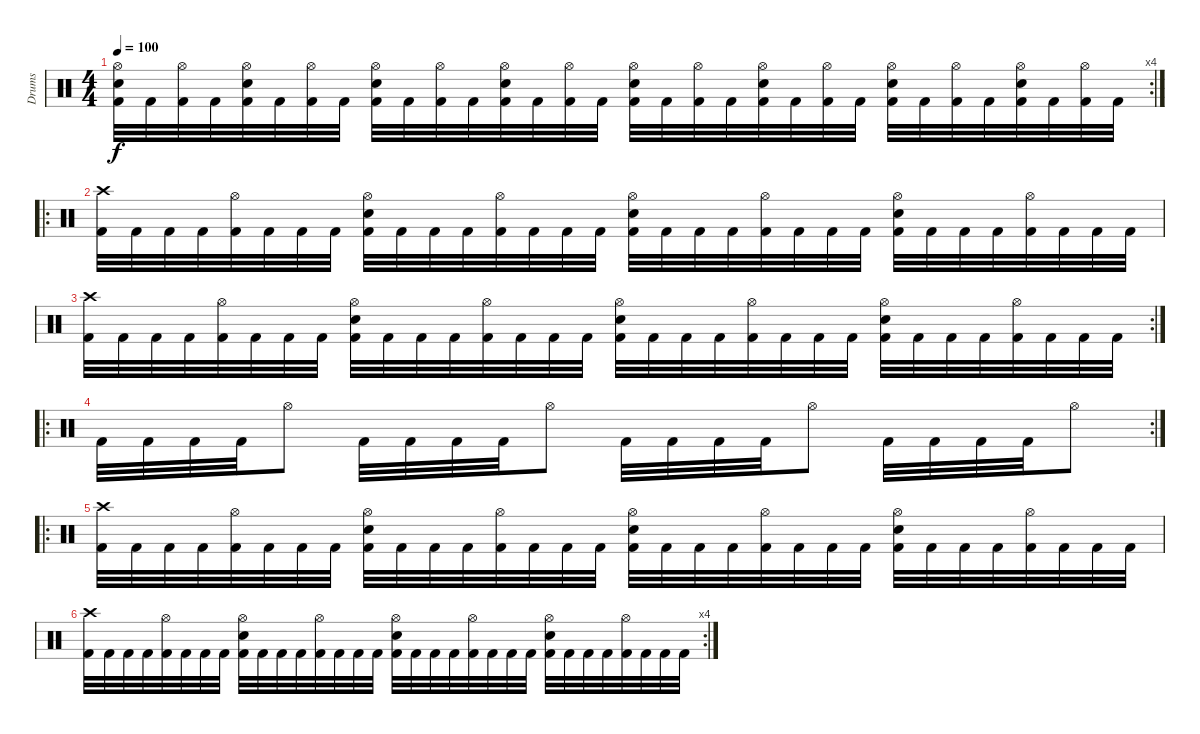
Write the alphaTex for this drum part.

\track ("Drums" "Drums") {instrument percussion}
\staff {score}
\articulation defaults
\rc 4
\ts (4 4)
\tempo 100
\clef neutral
\ks c
("Hi-Hat (open)" "Electric Snare (hit)" "Kick (hit) 2").32{dy f} "Kick (hit) 2".32 ("Hi-Hat (open)" "Kick (hit) 2").32 "Kick (hit) 2".32 ("Hi-Hat (open)" "Electric Snare (hit)" "Kick (hit) 2").32 "Kick (hit) 2".32 ("Hi-Hat (open)" "Kick (hit) 2").32 "Kick (hit) 2".32 ("Hi-Hat (open)" "Electric Snare (hit)" "Kick (hit) 2").32 "Kick (hit) 2".32 ("Hi-Hat (open)" "Kick (hit) 2").32 "Kick (hit) 2".32 ("Hi-Hat (open)" "Electric Snare (hit)" "Kick (hit) 2").32 "Kick (hit) 2".32 ("Hi-Hat (open)" "Kick (hit) 2").32 "Kick (hit) 2".32 ("Hi-Hat (open)" "Electric Snare (hit)" "Kick (hit) 2").32 "Kick (hit) 2".32 ("Hi-Hat (open)" "Kick (hit) 2").32 "Kick (hit) 2".32 ("Hi-Hat (open)" "Electric Snare (hit)" "Kick (hit) 2").32 "Kick (hit) 2".32 ("Hi-Hat (open)" "Kick (hit) 2").32 "Kick (hit) 2".32 ("Hi-Hat (open)" "Electric Snare (hit)" "Kick (hit) 2").32 "Kick (hit) 2".32 ("Hi-Hat (open)" "Kick (hit) 2").32 "Kick (hit) 2".32 ("Hi-Hat (open)" "Electric Snare (hit)" "Kick (hit) 2").32 "Kick (hit) 2".32 ("Hi-Hat (open)" "Kick (hit) 2").32 "Kick (hit) 2".32 |
\ro
("Crash high (hit)" "Kick (hit) 2").32 "Kick (hit) 2".32 "Kick (hit) 2".32 "Kick (hit) 2".32 ("Hi-Hat (open)" "Kick (hit) 2").32 "Kick (hit) 2".32 "Kick (hit) 2".32 "Kick (hit) 2".32 ("Hi-Hat (open)" "Electric Snare (hit)" "Kick (hit) 2").32 "Kick (hit) 2".32 "Kick (hit) 2".32 "Kick (hit) 2".32 ("Hi-Hat (open)" "Kick (hit) 2").32 "Kick (hit) 2".32 "Kick (hit) 2".32 "Kick (hit) 2".32 ("Hi-Hat (open)" "Electric Snare (hit)" "Kick (hit) 2").32 "Kick (hit) 2".32 "Kick (hit) 2".32 "Kick (hit) 2".32 ("Hi-Hat (open)" "Kick (hit) 2").32 "Kick (hit) 2".32 "Kick (hit) 2".32 "Kick (hit) 2".32 ("Hi-Hat (open)" "Electric Snare (hit)" "Kick (hit) 2").32 "Kick (hit) 2".32 "Kick (hit) 2".32 "Kick (hit) 2".32 ("Hi-Hat (open)" "Kick (hit) 2").32 "Kick (hit) 2".32 "Kick (hit) 2".32 "Kick (hit) 2".32 |
\rc 2
("Crash high (hit)" "Kick (hit) 2").32 "Kick (hit) 2".32 "Kick (hit) 2".32 "Kick (hit) 2".32 ("Hi-Hat (open)" "Kick (hit) 2").32 "Kick (hit) 2".32 "Kick (hit) 2".32 "Kick (hit) 2".32 ("Hi-Hat (open)" "Electric Snare (hit)" "Kick (hit) 2").32 "Kick (hit) 2".32 "Kick (hit) 2".32 "Kick (hit) 2".32 ("Hi-Hat (open)" "Kick (hit) 2").32 "Kick (hit) 2".32 "Kick (hit) 2".32 "Kick (hit) 2".32 ("Hi-Hat (open)" "Electric Snare (hit)" "Kick (hit) 2").32 "Kick (hit) 2".32 "Kick (hit) 2".32 "Kick (hit) 2".32 ("Hi-Hat (open)" "Kick (hit) 2").32 "Kick (hit) 2".32 "Kick (hit) 2".32 "Kick (hit) 2".32 ("Hi-Hat (open)" "Electric Snare (hit)" "Kick (hit) 2").32 "Kick (hit) 2".32 "Kick (hit) 2".32 "Kick (hit) 2".32 ("Hi-Hat (open)" "Kick (hit) 2").32 "Kick (hit) 2".32 "Kick (hit) 2".32 "Kick (hit) 2".32 |
\ro
\rc 2 "Kick (hit) 2".32 "Kick (hit) 2".32 "Kick (hit) 2".32 "Kick (hit) 2".32 "Hi-Hat (open)".8 "Kick (hit) 2".32 "Kick (hit) 2".32 "Kick (hit) 2".32 "Kick (hit) 2".32 "Hi-Hat (open)".8 "Kick (hit) 2".32 "Kick (hit) 2".32 "Kick (hit) 2".32 "Kick (hit) 2".32 "Hi-Hat (open)".8 "Kick (hit) 2".32 "Kick (hit) 2".32 "Kick (hit) 2".32 "Kick (hit) 2".32 "Hi-Hat (open)".8
|
\ro
("Crash high (hit)" "Kick (hit) 2").32 "Kick (hit) 2".32 "Kick (hit) 2".32 "Kick (hit) 2".32 ("Hi-Hat (open)" "Kick (hit) 2").32 "Kick (hit) 2".32 "Kick (hit) 2".32 "Kick (hit) 2".32 ("Hi-Hat (open)" "Electric Snare (hit)" "Kick (hit) 2").32 "Kick (hit) 2".32 "Kick (hit) 2".32 "Kick (hit) 2".32 ("Hi-Hat (open)" "Kick (hit) 2").32 "Kick (hit) 2".32 "Kick (hit) 2".32 "Kick (hit) 2".32 ("Hi-Hat (open)" "Electric Snare (hit)" "Kick (hit) 2").32 "Kick (hit) 2".32 "Kick (hit) 2".32 "Kick (hit) 2".32 ("Hi-Hat (open)" "Kick (hit) 2").32 "Kick (hit) 2".32 "Kick (hit) 2".32 "Kick (hit) 2".32 ("Hi-Hat (open)" "Electric Snare (hit)" "Kick (hit) 2").32 "Kick (hit) 2".32 "Kick (hit) 2".32 "Kick (hit) 2".32 ("Hi-Hat (open)" "Kick (hit) 2").32 "Kick (hit) 2".32 "Kick (hit) 2".32 "Kick (hit) 2".32 |
\rc 4
("Crash high (hit)" "Kick (hit) 2").32 "Kick (hit) 2".32 "Kick (hit) 2".32 "Kick (hit) 2".32 ("Hi-Hat (open)" "Kick (hit) 2").32 "Kick (hit) 2".32 "Kick (hit) 2".32 "Kick (hit) 2".32 ("Hi-Hat (open)" "Electric Snare (hit)" "Kick (hit) 2").32 "Kick (hit) 2".32 "Kick (hit) 2".32 "Kick (hit) 2".32 ("Hi-Hat (open)" "Kick (hit) 2").32 "Kick (hit) 2".32 "Kick (hit) 2".32 "Kick (hit) 2".32 ("Hi-Hat (open)" "Electric Snare (hit)" "Kick (hit) 2").32 "Kick (hit) 2".32 "Kick (hit) 2".32 "Kick (hit) 2".32 ("Hi-Hat (open)" "Kick (hit) 2").32 "Kick (hit) 2".32 "Kick (hit) 2".32 "Kick (hit) 2".32 ("Hi-Hat (open)" "Electric Snare (hit)" "Kick (hit) 2").32 "Kick (hit) 2".32 "Kick (hit) 2".32 "Kick (hit) 2".32 ("Hi-Hat (open)" "Kick (hit) 2").32 "Kick (hit) 2".32 "Kick (hit) 2".32 "Kick (hit) 2".32
